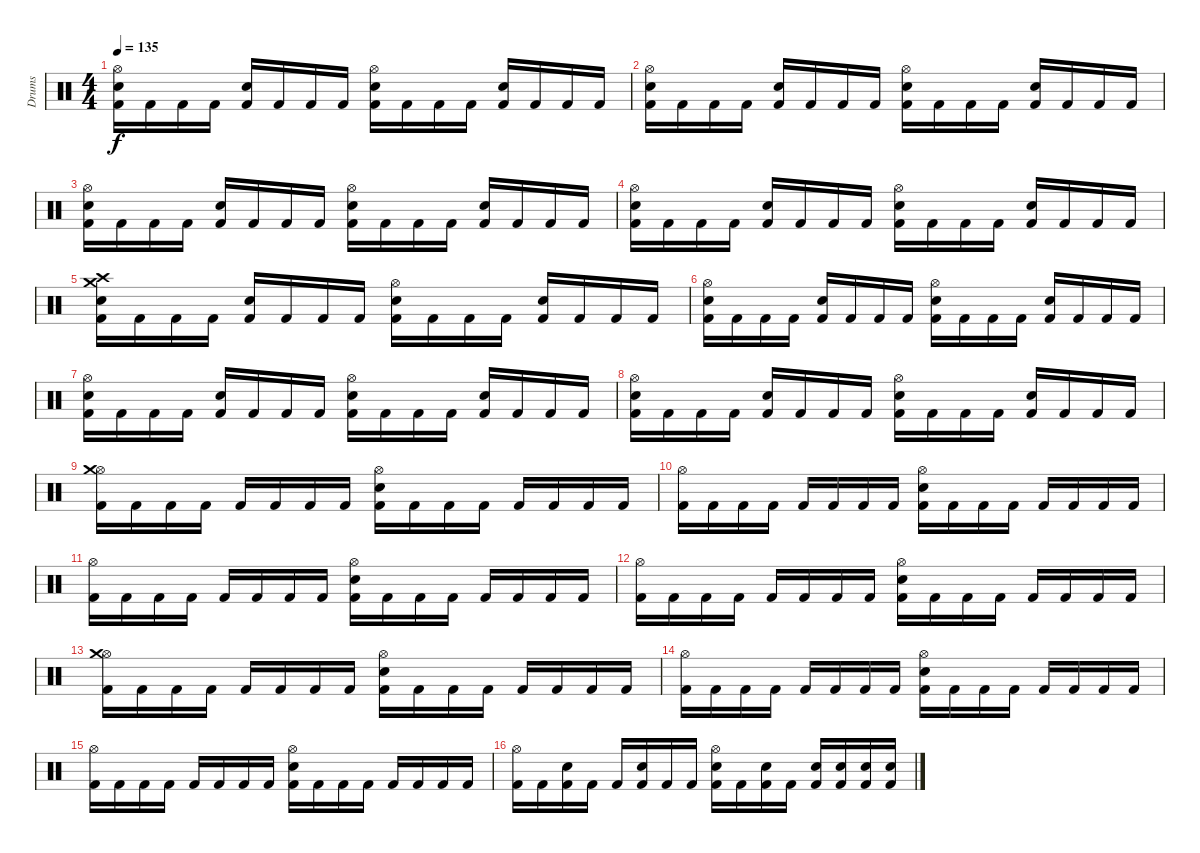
\track ("Drums" "Drums") {instrument percussion}
\staff {score}
\articulation defaults
\ts (4 4)
\tempo 135
\clef neutral
\ks c
("Snare (hit) 2" "Kick (hit) 2" "Hi-Hat (open)").16{dy f} "Kick (hit) 2".16 "Kick (hit) 2".16 "Kick (hit) 2".16 ("Snare (hit) 2" "Kick (hit) 2").16 "Kick (hit) 2".16 "Kick (hit) 2".16 "Kick (hit) 2".16 ("Snare (hit) 2" "Kick (hit) 2" "Hi-Hat (open)").16 "Kick (hit) 2".16 "Kick (hit) 2".16 "Kick (hit) 2".16 ("Snare (hit) 2" "Kick (hit) 2").16 "Kick (hit) 2".16 "Kick (hit) 2".16 "Kick (hit) 2".16 |
("Snare (hit) 2" "Kick (hit) 2" "Hi-Hat (open)").16 "Kick (hit) 2".16 "Kick (hit) 2".16 "Kick (hit) 2".16 ("Snare (hit) 2" "Kick (hit) 2").16 "Kick (hit) 2".16 "Kick (hit) 2".16 "Kick (hit) 2".16 ("Snare (hit) 2" "Kick (hit) 2" "Hi-Hat (open)").16 "Kick (hit) 2".16 "Kick (hit) 2".16 "Kick (hit) 2".16 ("Snare (hit) 2" "Kick (hit) 2").16 "Kick (hit) 2".16 "Kick (hit) 2".16 "Kick (hit) 2".16 |
("Snare (hit) 2" "Kick (hit) 2" "Hi-Hat (open)").16 "Kick (hit) 2".16 "Kick (hit) 2".16 "Kick (hit) 2".16 ("Snare (hit) 2" "Kick (hit) 2").16 "Kick (hit) 2".16 "Kick (hit) 2".16 "Kick (hit) 2".16 ("Snare (hit) 2" "Kick (hit) 2" "Hi-Hat (open)").16 "Kick (hit) 2".16 "Kick (hit) 2".16 "Kick (hit) 2".16 ("Snare (hit) 2" "Kick (hit) 2").16 "Kick (hit) 2".16 "Kick (hit) 2".16 "Kick (hit) 2".16 |
("Snare (hit) 2" "Kick (hit) 2" "Hi-Hat (open)").16 "Kick (hit) 2".16 "Kick (hit) 2".16 "Kick (hit) 2".16 ("Snare (hit) 2" "Kick (hit) 2").16 "Kick (hit) 2".16 "Kick (hit) 2".16 "Kick (hit) 2".16 ("Snare (hit) 2" "Kick (hit) 2" "Hi-Hat (open)").16 "Kick (hit) 2".16 "Kick (hit) 2".16 "Kick (hit) 2".16 ("Snare (hit) 2" "Kick (hit) 2").16 "Kick (hit) 2".16 "Kick (hit) 2".16 "Kick (hit) 2".16 |
("Snare (hit) 2" "Kick (hit) 2" "Crash medium (hit)" "Crash high (hit)").16 "Kick (hit) 2".16 "Kick (hit) 2".16 "Kick (hit) 2".16 ("Snare (hit) 2" "Kick (hit) 2").16 "Kick (hit) 2".16 "Kick (hit) 2".16 "Kick (hit) 2".16 ("Snare (hit) 2" "Kick (hit) 2" "Hi-Hat (open)").16 "Kick (hit) 2".16 "Kick (hit) 2".16 "Kick (hit) 2".16 ("Snare (hit) 2" "Kick (hit) 2").16 "Kick (hit) 2".16 "Kick (hit) 2".16 "Kick (hit) 2".16 |
("Snare (hit) 2" "Kick (hit) 2" "Hi-Hat (open)").16 "Kick (hit) 2".16 "Kick (hit) 2".16 "Kick (hit) 2".16 ("Snare (hit) 2" "Kick (hit) 2").16 "Kick (hit) 2".16 "Kick (hit) 2".16 "Kick (hit) 2".16 ("Snare (hit) 2" "Kick (hit) 2" "Hi-Hat (open)").16 "Kick (hit) 2".16 "Kick (hit) 2".16 "Kick (hit) 2".16 ("Snare (hit) 2" "Kick (hit) 2").16 "Kick (hit) 2".16 "Kick (hit) 2".16 "Kick (hit) 2".16 |
("Snare (hit) 2" "Kick (hit) 2" "Hi-Hat (open)").16 "Kick (hit) 2".16 "Kick (hit) 2".16 "Kick (hit) 2".16 ("Snare (hit) 2" "Kick (hit) 2").16 "Kick (hit) 2".16 "Kick (hit) 2".16 "Kick (hit) 2".16 ("Snare (hit) 2" "Kick (hit) 2" "Hi-Hat (open)").16 "Kick (hit) 2".16 "Kick (hit) 2".16 "Kick (hit) 2".16 ("Snare (hit) 2" "Kick (hit) 2").16 "Kick (hit) 2".16 "Kick (hit) 2".16 "Kick (hit) 2".16 |
("Snare (hit) 2" "Kick (hit) 2" "Hi-Hat (open)").16 "Kick (hit) 2".16 "Kick (hit) 2".16 "Kick (hit) 2".16 ("Snare (hit) 2" "Kick (hit) 2").16 "Kick (hit) 2".16 "Kick (hit) 2".16 "Kick (hit) 2".16 ("Snare (hit) 2" "Kick (hit) 2" "Hi-Hat (open)").16 "Kick (hit) 2".16 "Kick (hit) 2".16 "Kick (hit) 2".16 ("Snare (hit) 2" "Kick (hit) 2").16 "Kick (hit) 2".16 "Kick (hit) 2".16 "Kick (hit) 2".16 |
("Kick (hit) 2" "Hi-Hat (open)" "Crash medium (hit)").16 "Kick (hit) 2".16 "Kick (hit) 2".16 "Kick (hit) 2".16 "Kick (hit) 2".16 "Kick (hit) 2".16 "Kick (hit) 2".16 "Kick (hit) 2".16 ("Snare (hit) 2" "Kick (hit) 2" "Hi-Hat (open)").16 "Kick (hit) 2".16 "Kick (hit) 2".16 "Kick (hit) 2".16 "Kick (hit) 2".16 "Kick (hit) 2".16 "Kick (hit) 2".16 "Kick (hit) 2".16 |
("Kick (hit) 2" "Hi-Hat (open)").16 "Kick (hit) 2".16 "Kick (hit) 2".16 "Kick (hit) 2".16 "Kick (hit) 2".16 "Kick (hit) 2".16 "Kick (hit) 2".16 "Kick (hit) 2".16 ("Snare (hit) 2" "Kick (hit) 2" "Hi-Hat (open)").16 "Kick (hit) 2".16 "Kick (hit) 2".16 "Kick (hit) 2".16 "Kick (hit) 2".16 "Kick (hit) 2".16 "Kick (hit) 2".16 "Kick (hit) 2".16 |
("Kick (hit) 2" "Hi-Hat (open)").16 "Kick (hit) 2".16 "Kick (hit) 2".16 "Kick (hit) 2".16 "Kick (hit) 2".16 "Kick (hit) 2".16 "Kick (hit) 2".16 "Kick (hit) 2".16 ("Snare (hit) 2" "Kick (hit) 2" "Hi-Hat (open)").16 "Kick (hit) 2".16 "Kick (hit) 2".16 "Kick (hit) 2".16 "Kick (hit) 2".16 "Kick (hit) 2".16 "Kick (hit) 2".16 "Kick (hit) 2".16 |
("Kick (hit) 2" "Hi-Hat (open)").16 "Kick (hit) 2".16 "Kick (hit) 2".16 "Kick (hit) 2".16 "Kick (hit) 2".16 "Kick (hit) 2".16 "Kick (hit) 2".16 "Kick (hit) 2".16 ("Snare (hit) 2" "Kick (hit) 2" "Hi-Hat (open)").16 "Kick (hit) 2".16 "Kick (hit) 2".16 "Kick (hit) 2".16 "Kick (hit) 2".16 "Kick (hit) 2".16 "Kick (hit) 2".16 "Kick (hit) 2".16 |
("Kick (hit) 2" "Hi-Hat (open)" "Crash medium (hit)").16 "Kick (hit) 2".16 "Kick (hit) 2".16 "Kick (hit) 2".16 "Kick (hit) 2".16 "Kick (hit) 2".16 "Kick (hit) 2".16 "Kick (hit) 2".16 ("Snare (hit) 2" "Kick (hit) 2" "Hi-Hat (open)").16 "Kick (hit) 2".16 "Kick (hit) 2".16 "Kick (hit) 2".16 "Kick (hit) 2".16 "Kick (hit) 2".16 "Kick (hit) 2".16 "Kick (hit) 2".16 |
("Kick (hit) 2" "Hi-Hat (open)").16 "Kick (hit) 2".16 "Kick (hit) 2".16 "Kick (hit) 2".16 "Kick (hit) 2".16 "Kick (hit) 2".16 "Kick (hit) 2".16 "Kick (hit) 2".16 ("Snare (hit) 2" "Kick (hit) 2" "Hi-Hat (open)").16 "Kick (hit) 2".16 "Kick (hit) 2".16 "Kick (hit) 2".16 "Kick (hit) 2".16 "Kick (hit) 2".16 "Kick (hit) 2".16 "Kick (hit) 2".16 |
("Kick (hit) 2" "Hi-Hat (open)").16 "Kick (hit) 2".16 "Kick (hit) 2".16 "Kick (hit) 2".16 "Kick (hit) 2".16 "Kick (hit) 2".16 "Kick (hit) 2".16 "Kick (hit) 2".16 ("Snare (hit) 2" "Kick (hit) 2" "Hi-Hat (open)").16 "Kick (hit) 2".16 "Kick (hit) 2".16 "Kick (hit) 2".16 "Kick (hit) 2".16 "Kick (hit) 2".16 "Kick (hit) 2".16 "Kick (hit) 2".16 |
("Kick (hit) 2" "Hi-Hat (open)").16 "Kick (hit) 2".16 ("Snare (hit) 2" "Kick (hit) 2").16 "Kick (hit) 2".16 "Kick (hit) 2".16 ("Snare (hit) 2" "Kick (hit) 2").16 "Kick (hit) 2".16 "Kick (hit) 2".16 ("Snare (hit) 2" "Kick (hit) 2" "Hi-Hat (open)").16 "Kick (hit) 2".16 ("Snare (hit) 2" "Kick (hit) 2").16 "Kick (hit) 2".16 ("Snare (hit) 2" "Kick (hit) 2").16 ("Snare (hit) 2" "Kick (hit) 2").16 ("Snare (hit) 2" "Kick (hit) 2").16 ("Snare (hit) 2" "Kick (hit) 2").16
